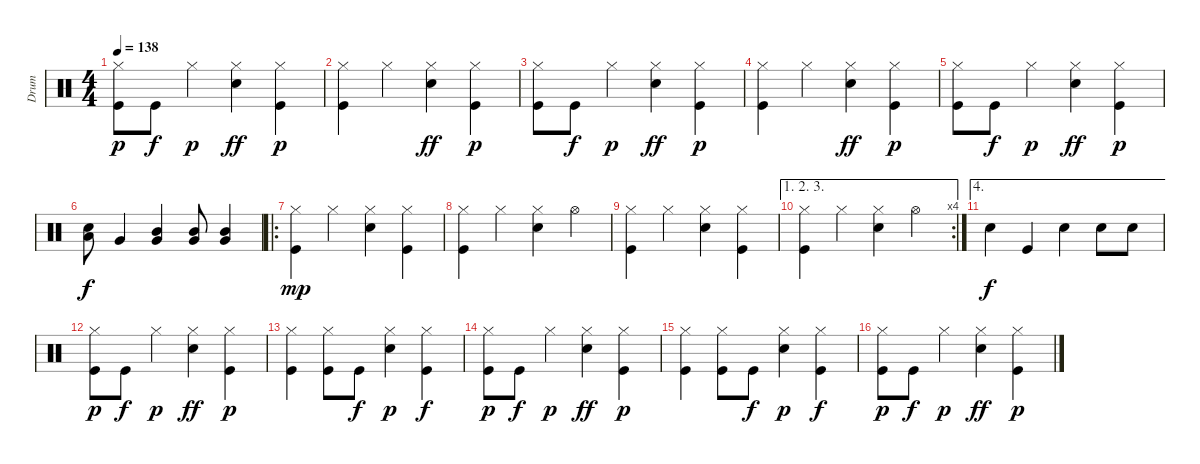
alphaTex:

\track ("Drum" "Drum") {instrument percussion}
\staff {score}
\articulation defaults
\ts (4 4)
\tempo 138
\clef neutral
\ks c
("Kick (hit)" "Hi-Hat (closed)").8{dy p} "Kick (hit)".8{dy f} "Hi-Hat (closed)".4{dy p} ("Snare (hit) 2" "Hi-Hat (closed)").4{dy ff} ("Kick (hit)" "Hi-Hat (closed)").4{dy p} |
("Kick (hit)" "Hi-Hat (closed)").4 "Hi-Hat (closed)".4 ("Snare (hit) 2" "Hi-Hat (closed)").4{dy ff} ("Kick (hit)" "Hi-Hat (closed)").4{dy p} |
("Kick (hit)" "Hi-Hat (closed)").8 "Kick (hit)".8{dy f} "Hi-Hat (closed)".4{dy p} ("Snare (hit) 2" "Hi-Hat (closed)").4{dy ff} ("Kick (hit)" "Hi-Hat (closed)").4{dy p} |
("Kick (hit)" "Hi-Hat (closed)").4 "Hi-Hat (closed)".4 ("Snare (hit) 2" "Hi-Hat (closed)").4{dy ff} ("Kick (hit)" "Hi-Hat (closed)").4{dy p} |
("Kick (hit)" "Hi-Hat (closed)").8 "Kick (hit)".8{dy f} "Hi-Hat (closed)".4{dy p} ("Snare (hit) 2" "Hi-Hat (closed)").4{dy ff} ("Kick (hit)" "Hi-Hat (closed)").4{dy p} |
("Low Tom (hit)" "Snare (hit) 2").8{dy f} "Very Low Tom (hit)".4 ("Mid Tom (hit)" "Very Low Tom (hit)").4 ("Mid Tom (hit)" "Very Low Tom (hit)").8 ("Mid Tom (hit)" "Very Low Tom (hit)").4 |
\ro
("Kick (hit)" "Hi-Hat (closed)").4{dy mp} "Hi-Hat (closed)".4 ("Snare (hit) 2" "Hi-Hat (closed)").4 ("Kick (hit)" "Hi-Hat (closed)").4 |
("Kick (hit)" "Hi-Hat (closed)").4 "Hi-Hat (closed)".4 ("Snare (hit) 2" "Hi-Hat (closed)").4 "Hi-Hat (open)".4 |
("Kick (hit)" "Hi-Hat (closed)").4 "Hi-Hat (closed)".4 ("Snare (hit) 2" "Hi-Hat (closed)").4 ("Kick (hit)" "Hi-Hat (closed)").4 |
\ae (1 2 3)
\rc 4
("Kick (hit)" "Hi-Hat (closed)").4 "Hi-Hat (closed)".4 ("Snare (hit) 2" "Hi-Hat (closed)").4 "Hi-Hat (open)".4 |
\ae 4 "Snare (hit) 2".4{dy f} "Kick (hit)".4 "Snare (hit) 2".4 "Snare (hit) 2".8 "Snare (hit) 2".8
|
("Kick (hit)" "Hi-Hat (closed)").8{dy p} "Kick (hit)".8{dy f} "Hi-Hat (closed)".4{dy p} ("Snare (hit) 2" "Hi-Hat (closed)").4{dy ff} ("Kick (hit)" "Hi-Hat (closed)").4{dy p} |
("Kick (hit)" "Hi-Hat (closed)").4 ("Kick (hit)" "Hi-Hat (closed)").8 "Kick (hit)".8{dy f} ("Snare (hit) 2" "Hi-Hat (closed)").4{dy p} ("Kick (hit)" "Hi-Hat (closed)").4{dy f} |
("Kick (hit)" "Hi-Hat (closed)").8{dy p} "Kick (hit)".8{dy f} "Hi-Hat (closed)".4{dy p} ("Snare (hit) 2" "Hi-Hat (closed)").4{dy ff} ("Kick (hit)" "Hi-Hat (closed)").4{dy p} |
("Kick (hit)" "Hi-Hat (closed)").4 ("Kick (hit)" "Hi-Hat (closed)").8 "Kick (hit)".8{dy f} ("Snare (hit) 2" "Hi-Hat (closed)").4{dy p} ("Kick (hit)" "Hi-Hat (closed)").4{dy f} |
("Kick (hit)" "Hi-Hat (closed)").8{dy p} "Kick (hit)".8{dy f} "Hi-Hat (closed)".4{dy p} ("Snare (hit) 2" "Hi-Hat (closed)").4{dy ff} ("Kick (hit)" "Hi-Hat (closed)").4{dy p}
